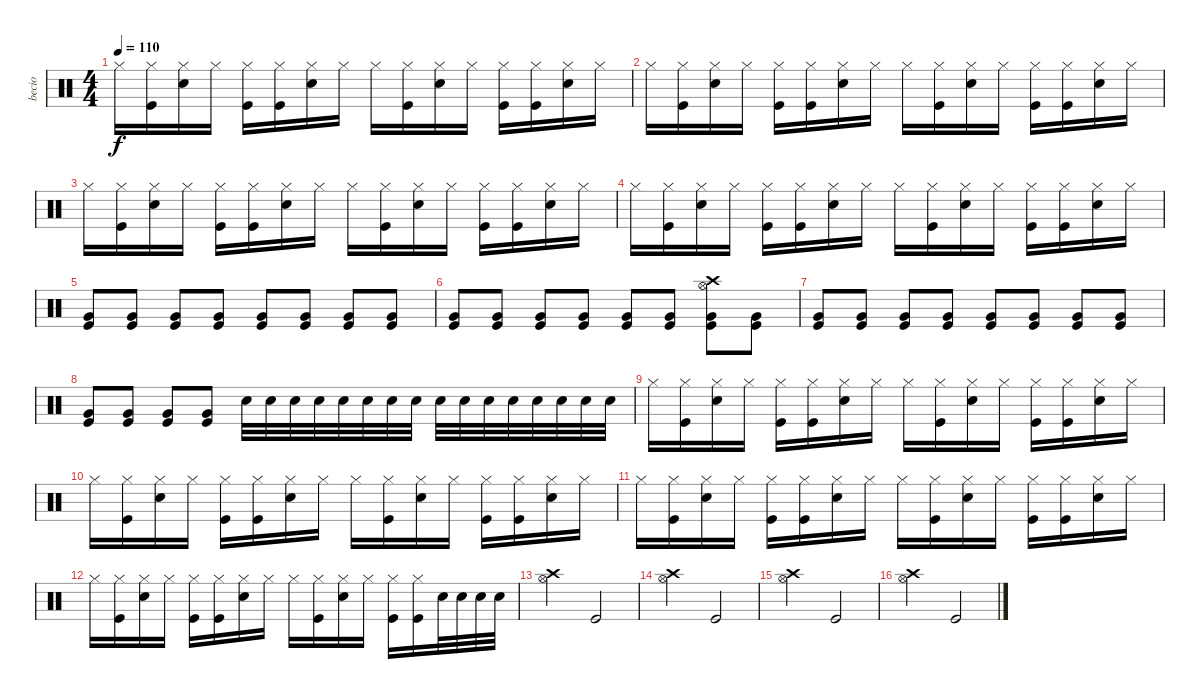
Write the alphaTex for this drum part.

\track ("becio" "becio") {instrument percussion}
\staff {score}
\articulation defaults
\ts (4 4)
\tempo 110
\clef neutral
\ks c "Hi-Hat (closed)".16{dy f}
("Kick (hit)" "Hi-Hat (closed)").16 ("Snare (hit) 2" "Hi-Hat (closed)").16 "Hi-Hat (closed)".16 ("Kick (hit)" "Hi-Hat (closed)").16 ("Kick (hit)" "Hi-Hat (closed)").16 ("Snare (hit) 2" "Hi-Hat (closed)").16 "Hi-Hat (closed)".16 "Hi-Hat (closed)".16 ("Kick (hit)" "Hi-Hat (closed)").16 ("Snare (hit) 2" "Hi-Hat (closed)").16 "Hi-Hat (closed)".16 ("Kick (hit)" "Hi-Hat (closed)").16 ("Kick (hit)" "Hi-Hat (closed)").16 ("Snare (hit) 2" "Hi-Hat (closed)").16 "Hi-Hat (closed)".16 |
"Hi-Hat (closed)".16 ("Kick (hit)" "Hi-Hat (closed)").16 ("Snare (hit) 2" "Hi-Hat (closed)").16 "Hi-Hat (closed)".16 ("Kick (hit)" "Hi-Hat (closed)").16 ("Kick (hit)" "Hi-Hat (closed)").16 ("Snare (hit) 2" "Hi-Hat (closed)").16 "Hi-Hat (closed)".16 "Hi-Hat (closed)".16 ("Kick (hit)" "Hi-Hat (closed)").16 ("Snare (hit) 2" "Hi-Hat (closed)").16 "Hi-Hat (closed)".16 ("Kick (hit)" "Hi-Hat (closed)").16 ("Kick (hit)" "Hi-Hat (closed)").16 ("Snare (hit) 2" "Hi-Hat (closed)").16 "Hi-Hat (closed)".16 |
"Hi-Hat (closed)".16 ("Kick (hit)" "Hi-Hat (closed)").16 ("Snare (hit) 2" "Hi-Hat (closed)").16 "Hi-Hat (closed)".16 ("Kick (hit)" "Hi-Hat (closed)").16 ("Kick (hit)" "Hi-Hat (closed)").16 ("Snare (hit) 2" "Hi-Hat (closed)").16 "Hi-Hat (closed)".16 "Hi-Hat (closed)".16 ("Kick (hit)" "Hi-Hat (closed)").16 ("Snare (hit) 2" "Hi-Hat (closed)").16 "Hi-Hat (closed)".16 ("Kick (hit)" "Hi-Hat (closed)").16 ("Kick (hit)" "Hi-Hat (closed)").16 ("Snare (hit) 2" "Hi-Hat (closed)").16 "Hi-Hat (closed)".16 |
"Hi-Hat (closed)".16 ("Kick (hit)" "Hi-Hat (closed)").16 ("Snare (hit) 2" "Hi-Hat (closed)").16 "Hi-Hat (closed)".16 ("Kick (hit)" "Hi-Hat (closed)").16 ("Kick (hit)" "Hi-Hat (closed)").16 ("Snare (hit) 2" "Hi-Hat (closed)").16 "Hi-Hat (closed)".16 "Hi-Hat (closed)".16 ("Kick (hit)" "Hi-Hat (closed)").16 ("Snare (hit) 2" "Hi-Hat (closed)").16 "Hi-Hat (closed)".16 ("Kick (hit)" "Hi-Hat (closed)").16 ("Kick (hit)" "Hi-Hat (closed)").16 ("Snare (hit) 2" "Hi-Hat (closed)").16 "Hi-Hat (closed)".16 |
("Kick (hit)" "Very Low Tom (hit)").8 ("Kick (hit)" "Very Low Tom (hit)").8 ("Kick (hit)" "Very Low Tom (hit)").8 ("Kick (hit)" "Very Low Tom (hit)").8 ("Kick (hit)" "Very Low Tom (hit)").8 ("Kick (hit)" "Very Low Tom (hit)").8 ("Kick (hit)" "Very Low Tom (hit)").8 ("Kick (hit)" "Very Low Tom (hit)").8 |
("Kick (hit)" "Very Low Tom (hit)").8 ("Kick (hit)" "Very Low Tom (hit)").8 ("Kick (hit)" "Very Low Tom (hit)").8 ("Kick (hit)" "Very Low Tom (hit)").8 ("Kick (hit)" "Very Low Tom (hit)").8 ("Kick (hit)" "Very Low Tom (hit)").8 ("Kick (hit)" "Very Low Tom (hit)" "Hi-Hat (open)" "Crash high (hit)").8 ("Kick (hit)" "Very Low Tom (hit)").8 |
("Kick (hit)" "Very Low Tom (hit)").8 ("Kick (hit)" "Very Low Tom (hit)").8 ("Kick (hit)" "Very Low Tom (hit)").8 ("Kick (hit)" "Very Low Tom (hit)").8 ("Kick (hit)" "Very Low Tom (hit)").8 ("Kick (hit)" "Very Low Tom (hit)").8 ("Kick (hit)" "Very Low Tom (hit)").8 ("Kick (hit)" "Very Low Tom (hit)").8 |
("Kick (hit)" "Very Low Tom (hit)").8 ("Kick (hit)" "Very Low Tom (hit)").8 ("Kick (hit)" "Very Low Tom (hit)").8 ("Kick (hit)" "Very Low Tom (hit)").8 "Snare (hit) 2".32 "Snare (hit) 2".32 "Snare (hit) 2".32 "Snare (hit) 2".32 "Snare (hit) 2".32 "Snare (hit) 2".32 "Snare (hit) 2".32 "Snare (hit) 2".32 "Snare (hit) 2".32 "Snare (hit) 2".32 "Snare (hit) 2".32 "Snare (hit) 2".32 "Snare (hit) 2".32 "Snare (hit) 2".32 "Snare (hit) 2".32 "Snare (hit) 2".32 |
"Hi-Hat (closed)".16 ("Kick (hit)" "Hi-Hat (closed)").16 ("Snare (hit) 2" "Hi-Hat (closed)").16 "Hi-Hat (closed)".16 ("Kick (hit)" "Hi-Hat (closed)").16 ("Kick (hit)" "Hi-Hat (closed)").16 ("Snare (hit) 2" "Hi-Hat (closed)").16 "Hi-Hat (closed)".16 "Hi-Hat (closed)".16 ("Kick (hit)" "Hi-Hat (closed)").16 ("Snare (hit) 2" "Hi-Hat (closed)").16 "Hi-Hat (closed)".16 ("Kick (hit)" "Hi-Hat (closed)").16 ("Kick (hit)" "Hi-Hat (closed)").16 ("Snare (hit) 2" "Hi-Hat (closed)").16 "Hi-Hat (closed)".16 |
"Hi-Hat (closed)".16 ("Kick (hit)" "Hi-Hat (closed)").16 ("Snare (hit) 2" "Hi-Hat (closed)").16 "Hi-Hat (closed)".16 ("Kick (hit)" "Hi-Hat (closed)").16 ("Kick (hit)" "Hi-Hat (closed)").16 ("Snare (hit) 2" "Hi-Hat (closed)").16 "Hi-Hat (closed)".16 "Hi-Hat (closed)".16 ("Kick (hit)" "Hi-Hat (closed)").16 ("Snare (hit) 2" "Hi-Hat (closed)").16 "Hi-Hat (closed)".16 ("Kick (hit)" "Hi-Hat (closed)").16 ("Kick (hit)" "Hi-Hat (closed)").16 ("Snare (hit) 2" "Hi-Hat (closed)").16 "Hi-Hat (closed)".16 |
"Hi-Hat (closed)".16 ("Kick (hit)" "Hi-Hat (closed)").16 ("Snare (hit) 2" "Hi-Hat (closed)").16 "Hi-Hat (closed)".16 ("Kick (hit)" "Hi-Hat (closed)").16 ("Kick (hit)" "Hi-Hat (closed)").16 ("Snare (hit) 2" "Hi-Hat (closed)").16 "Hi-Hat (closed)".16 "Hi-Hat (closed)".16 ("Kick (hit)" "Hi-Hat (closed)").16 ("Snare (hit) 2" "Hi-Hat (closed)").16 "Hi-Hat (closed)".16 ("Kick (hit)" "Hi-Hat (closed)").16 ("Kick (hit)" "Hi-Hat (closed)").16 ("Snare (hit) 2" "Hi-Hat (closed)").16 "Hi-Hat (closed)".16 |
"Hi-Hat (closed)".16 ("Kick (hit)" "Hi-Hat (closed)").16 ("Snare (hit) 2" "Hi-Hat (closed)").16 "Hi-Hat (closed)".16 ("Kick (hit)" "Hi-Hat (closed)").16 ("Kick (hit)" "Hi-Hat (closed)").16 ("Snare (hit) 2" "Hi-Hat (closed)").16 "Hi-Hat (closed)".16 "Hi-Hat (closed)".16 ("Kick (hit)" "Hi-Hat (closed)").16 ("Snare (hit) 2" "Hi-Hat (closed)").16 "Hi-Hat (closed)".16 ("Kick (hit)" "Hi-Hat (closed)").16 ("Kick (hit)" "Hi-Hat (closed)").16 "Snare (hit) 2".32 "Snare (hit) 2".32 "Snare (hit) 2".32 "Snare (hit) 2".32 |
("Hi-Hat (open)" "Crash high (hit)").2 "Kick (hit)".2 |
("Hi-Hat (open)" "Crash high (hit)").2 "Kick (hit)".2 |
("Hi-Hat (open)" "Crash high (hit)").2 "Kick (hit)".2 |
("Hi-Hat (open)" "Crash high (hit)").2 "Kick (hit)".2
